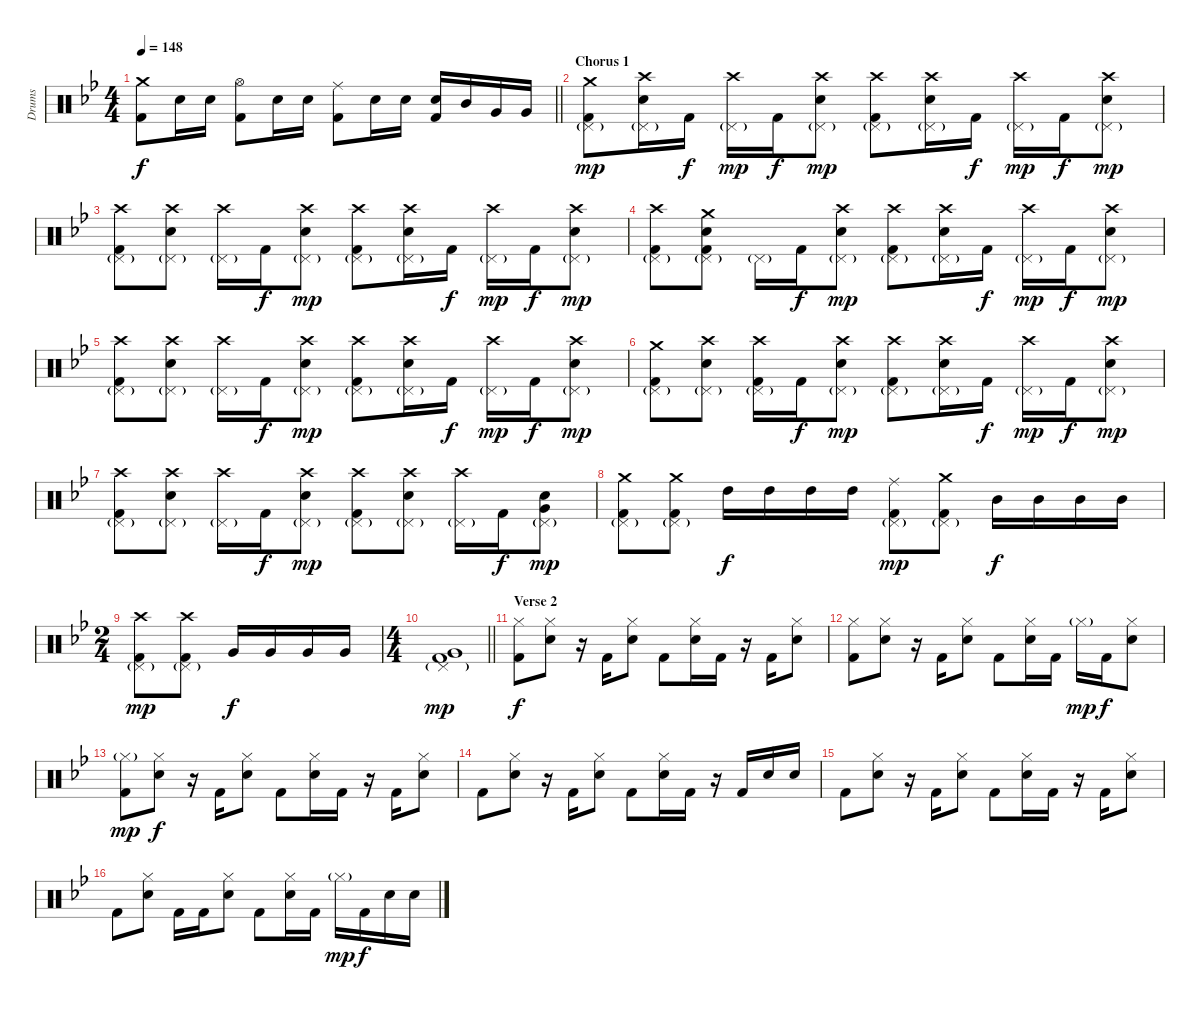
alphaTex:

\track ("Drums" "Drums") {instrument percussion}
\staff {score}
\articulation defaults
\ts (4 4)
\tempo 148
\clef neutral
\barLineRight lightlight
\ks gminor
("Crash medium (hit)" "Kick (hit) 2").8{dy f} "Electric Snare (hit)".16 "Electric Snare (hit)".16 ("Hi-Hat (open)" "Kick (hit) 2").8 "Electric Snare (hit)".16 "Electric Snare (hit)".16 ("Ride (middle)" "Kick (hit) 2").8 "Electric Snare (hit)".16 "Electric Snare (hit)".16 ("Electric Snare (hit)" "Kick (hit) 2").16 "Mid Tom (hit)".16 "Very Low Tom (hit)".16 "Very Low Tom (hit)".16 |
\section ("" "Chorus 1")
("Crash medium (hit)" "Pedal Hi-Hat (hit)"{g} "Kick (hit) 2").8{dy mp} ("Crash high (hit)" "Pedal Hi-Hat (hit)"{g} "Electric Snare (hit)").16 "Kick (hit) 2".16{dy f} ("Crash high (hit)" "Pedal Hi-Hat (hit)"{g}).16{dy mp} "Kick (hit) 2".16{dy f} ("Crash high (hit)" "Pedal Hi-Hat (hit)"{g} "Electric Snare (hit)").8{dy mp} ("Crash high (hit)" "Pedal Hi-Hat (hit)"{g} "Kick (hit) 2").8 ("Crash high (hit)" "Pedal Hi-Hat (hit)"{g} "Electric Snare (hit)").16 "Kick (hit) 2".16{dy f} ("Crash high (hit)" "Pedal Hi-Hat (hit)"{g}).16{dy mp} "Kick (hit) 2".16{dy f} ("Crash high (hit)" "Pedal Hi-Hat (hit)"{g} "Electric Snare (hit)").8{dy mp} |
("Crash high (hit)" "Pedal Hi-Hat (hit)"{g} "Kick (hit) 2").8 ("Crash high (hit)" "Pedal Hi-Hat (hit)"{g} "Electric Snare (hit)").8 ("Crash high (hit)" "Pedal Hi-Hat (hit)"{g}).16 "Kick (hit) 2".16{dy f} ("Crash high (hit)" "Pedal Hi-Hat (hit)"{g} "Electric Snare (hit)").8{dy mp} ("Crash high (hit)" "Pedal Hi-Hat (hit)"{g} "Kick (hit) 2").8 ("Crash high (hit)" "Pedal Hi-Hat (hit)"{g} "Electric Snare (hit)").16 "Kick (hit) 2".16{dy f} ("Crash high (hit)" "Pedal Hi-Hat (hit)"{g}).16{dy mp} "Kick (hit) 2".16{dy f} ("Crash high (hit)" "Pedal Hi-Hat (hit)"{g} "Electric Snare (hit)").8{dy mp} |
("Crash high (hit)" "Pedal Hi-Hat (hit)"{g} "Kick (hit) 2").8 ("Crash medium (hit)" "Pedal Hi-Hat (hit)"{g} "Electric Snare (hit)" "Kick (hit) 2").8 "Pedal Hi-Hat (hit)"{g}.16 "Kick (hit) 2".16{dy f} ("Crash high (hit)" "Pedal Hi-Hat (hit)"{g} "Electric Snare (hit)").8{dy mp} ("Crash high (hit)" "Pedal Hi-Hat (hit)"{g} "Kick (hit) 2").8 ("Crash high (hit)" "Pedal Hi-Hat (hit)"{g} "Electric Snare (hit)").16 "Kick (hit) 2".16{dy f} ("Crash high (hit)" "Pedal Hi-Hat (hit)"{g}).16{dy mp} "Kick (hit) 2".16{dy f} ("Crash high (hit)" "Pedal Hi-Hat (hit)"{g} "Electric Snare (hit)").8{dy mp} |
("Crash high (hit)" "Pedal Hi-Hat (hit)"{g} "Kick (hit) 2").8 ("Crash high (hit)" "Pedal Hi-Hat (hit)"{g} "Electric Snare (hit)").8 ("Crash high (hit)" "Pedal Hi-Hat (hit)"{g}).16 "Kick (hit) 2".16{dy f} ("Crash high (hit)" "Pedal Hi-Hat (hit)"{g} "Electric Snare (hit)").8{dy mp} ("Crash high (hit)" "Pedal Hi-Hat (hit)"{g} "Kick (hit) 2").8 ("Crash high (hit)" "Pedal Hi-Hat (hit)"{g} "Electric Snare (hit)").16 "Kick (hit) 2".16{dy f} ("Crash high (hit)" "Pedal Hi-Hat (hit)"{g}).16{dy mp} "Kick (hit) 2".16{dy f} ("Crash high (hit)" "Pedal Hi-Hat (hit)"{g} "Electric Snare (hit)").8{dy mp} |
("Crash medium (hit)" "Pedal Hi-Hat (hit)"{g} "Kick (hit) 2").8 ("Crash high (hit)" "Pedal Hi-Hat (hit)"{g} "Electric Snare (hit)").8 ("Crash high (hit)" "Pedal Hi-Hat (hit)"{g} "Kick (hit) 2").16 "Kick (hit) 2".16{dy f} ("Crash high (hit)" "Pedal Hi-Hat (hit)"{g} "Electric Snare (hit)").8{dy mp} ("Crash high (hit)" "Pedal Hi-Hat (hit)"{g} "Kick (hit) 2").8 ("Crash high (hit)" "Pedal Hi-Hat (hit)"{g} "Electric Snare (hit)").16 "Kick (hit) 2".16{dy f} ("Crash high (hit)" "Pedal Hi-Hat (hit)"{g}).16{dy mp} "Kick (hit) 2".16{dy f} ("Crash high (hit)" "Pedal Hi-Hat (hit)"{g} "Electric Snare (hit)").8{dy mp} |
("Crash high (hit)" "Pedal Hi-Hat (hit)"{g} "Kick (hit) 2").8 ("Crash high (hit)" "Pedal Hi-Hat (hit)"{g} "Electric Snare (hit)").8 ("Crash high (hit)" "Pedal Hi-Hat (hit)"{g}).16 "Kick (hit) 2".16{dy f} ("Crash high (hit)" "Pedal Hi-Hat (hit)"{g} "Electric Snare (hit)").8{dy mp} ("Crash high (hit)" "Pedal Hi-Hat (hit)"{g} "Kick (hit) 2").8 ("Crash high (hit)" "Pedal Hi-Hat (hit)"{g} "Electric Snare (hit)").8 ("Crash high (hit)" "Pedal Hi-Hat (hit)"{g}).16 "Kick (hit) 2".16{dy f} ("Pedal Hi-Hat (hit)"{g} "Electric Snare (hit)" "Very Low Tom (hit)").8{dy mp} |
("Crash medium (hit)" "Pedal Hi-Hat (hit)"{g} "Kick (hit) 2").8 ("Crash medium (hit)" "Pedal Hi-Hat (hit)"{g} "Kick (hit) 2").8 "High Tom (hit)".16{dy f} "High Tom (hit)".16 "High Tom (hit)".16 "High Tom (hit)".16 ("Ride (middle)" "Pedal Hi-Hat (hit)"{g} "Kick (hit) 2").8{dy mp} ("Crash medium (hit)" "Pedal Hi-Hat (hit)"{g} "Kick (hit) 2").8 "Mid Tom (hit)".16{dy f} "Mid Tom (hit)".16 "Mid Tom (hit)".16 "Mid Tom (hit)".16 |
\ts (2 4)
("Crash high (hit)" "Pedal Hi-Hat (hit)"{g} "Kick (hit) 2").8{dy mp} ("Crash high (hit)" "Pedal Hi-Hat (hit)"{g} "Kick (hit) 2").8 "Very Low Tom (hit)".16{dy f} "Very Low Tom (hit)".16 "Very Low Tom (hit)".16 "Very Low Tom (hit)".16 |
\ts (4 4)
\barLineRight lightlight
("Pedal Hi-Hat (hit)"{g} "Very Low Tom (hit)" "Kick (hit) 2").1{dy mp} |
\section ("" "Verse 2")
("Hi-Hat (closed)" "Kick (hit) 2").8{dy f} ("Hi-Hat (closed)" "Electric Snare (hit)").8 r.16 "Kick (hit) 2".16 ("Hi-Hat (closed)" "Electric Snare (hit)").8 "Kick (hit) 2".8 ("Hi-Hat (closed)" "Electric Snare (hit)").16 "Kick (hit) 2".16 r.16 "Kick (hit) 2".16 ("Hi-Hat (closed)" "Electric Snare (hit)").8 |
("Hi-Hat (closed)" "Kick (hit) 2").8 ("Hi-Hat (closed)" "Electric Snare (hit)").8 r.16 "Kick (hit) 2".16 ("Hi-Hat (closed)" "Electric Snare (hit)").8 "Kick (hit) 2".8 ("Hi-Hat (closed)" "Electric Snare (hit)").16 "Kick (hit) 2".16 "Hi-Hat (closed)"{g}.16{dy mp} "Kick (hit) 2".16{dy f} ("Hi-Hat (closed)" "Electric Snare (hit)").8 |
("Hi-Hat (closed)"{g} "Kick (hit) 2").8{dy mp} ("Hi-Hat (closed)" "Electric Snare (hit)").8{dy f} r.16 "Kick (hit) 2".16 ("Hi-Hat (closed)" "Electric Snare (hit)").8 "Kick (hit) 2".8 ("Hi-Hat (closed)" "Electric Snare (hit)").16 "Kick (hit) 2".16 r.16 "Kick (hit) 2".16 ("Hi-Hat (closed)" "Electric Snare (hit)").8 |
"Kick (hit) 2".8 ("Hi-Hat (closed)" "Electric Snare (hit)").8 r.16 "Kick (hit) 2".16 ("Hi-Hat (closed)" "Electric Snare (hit)").8 "Kick (hit) 2".8 ("Hi-Hat (closed)" "Electric Snare (hit)").16 "Kick (hit) 2".16 r.16 "Kick (hit) 2".16 "Electric Snare (hit)".16 "Electric Snare (hit)".16 |
"Kick (hit) 2".8 ("Hi-Hat (closed)" "Electric Snare (hit)").8 r.16 "Kick (hit) 2".16 ("Hi-Hat (closed)" "Electric Snare (hit)").8 "Kick (hit) 2".8 ("Hi-Hat (closed)" "Electric Snare (hit)").16 "Kick (hit) 2".16 r.16 "Kick (hit) 2".16 ("Hi-Hat (closed)" "Electric Snare (hit)").8 |
"Kick (hit) 2".8 ("Hi-Hat (closed)" "Electric Snare (hit)").8 "Kick (hit) 2".16 "Kick (hit) 2".16 ("Hi-Hat (closed)" "Electric Snare (hit)").8 "Kick (hit) 2".8 ("Hi-Hat (closed)" "Electric Snare (hit)").16 "Kick (hit) 2".16 "Hi-Hat (closed)"{g}.16{dy mp} "Kick (hit) 2".16{dy f} "Electric Snare (hit)".16 "Electric Snare (hit)".16
